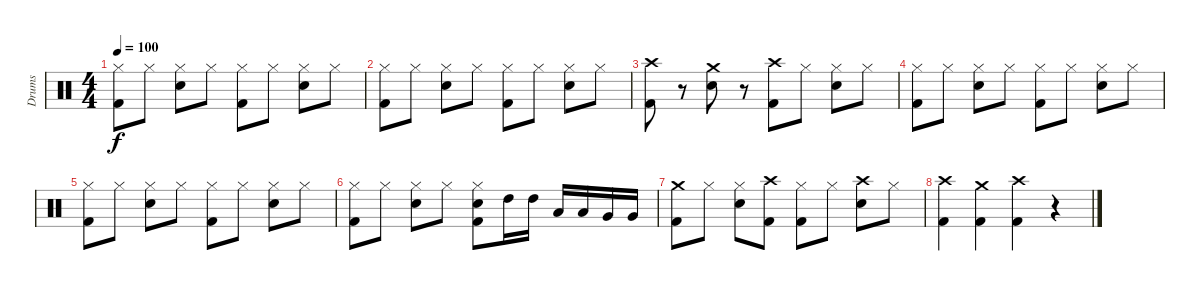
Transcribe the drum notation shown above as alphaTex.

\track ("Drums" "Drums") {instrument percussion}
\staff {score}
\articulation defaults
\ts (4 4)
\tempo 100
\clef neutral
\ks c
("Hi-Hat (closed)" "Kick (hit) 2").8{dy f} "Hi-Hat (closed)".8 ("Hi-Hat (closed)" "Snare (hit) 2").8 "Hi-Hat (closed)".8 ("Hi-Hat (closed)" "Kick (hit) 2").8 "Hi-Hat (closed)".8 ("Hi-Hat (closed)" "Snare (hit) 2").8 "Hi-Hat (closed)".8 |
("Hi-Hat (closed)" "Kick (hit) 2").8 "Hi-Hat (closed)".8 ("Hi-Hat (closed)" "Snare (hit) 2").8 "Hi-Hat (closed)".8 ("Hi-Hat (closed)" "Kick (hit) 2").8 "Hi-Hat (closed)".8 ("Hi-Hat (closed)" "Snare (hit) 2").8 "Hi-Hat (closed)".8 |
("Crash high (hit)" "Kick (hit) 2").8 r.8 ("Crash medium (hit)" "Snare (hit) 2").8 r.8 ("Crash high (hit)" "Kick (hit) 2").8 "Hi-Hat (closed)".8 ("Hi-Hat (closed)" "Snare (hit) 2").8 "Hi-Hat (closed)".8 |
("Hi-Hat (closed)" "Kick (hit) 2").8 "Hi-Hat (closed)".8 ("Hi-Hat (closed)" "Snare (hit) 2").8 "Hi-Hat (closed)".8 ("Hi-Hat (closed)" "Kick (hit) 2").8 "Hi-Hat (closed)".8 ("Hi-Hat (closed)" "Snare (hit) 2").8 "Hi-Hat (closed)".8 |
("Hi-Hat (closed)" "Kick (hit) 2").8 "Hi-Hat (closed)".8 ("Hi-Hat (closed)" "Snare (hit) 2").8 "Hi-Hat (closed)".8 ("Hi-Hat (closed)" "Kick (hit) 2").8 "Hi-Hat (closed)".8 ("Hi-Hat (closed)" "Snare (hit) 2").8 "Hi-Hat (closed)".8 |
("Hi-Hat (closed)" "Kick (hit) 2").8 "Hi-Hat (closed)".8 ("Hi-Hat (closed)" "Snare (hit) 2").8 "Hi-Hat (closed)".8 ("Hi-Hat (closed)" "Snare (hit) 2" "Kick (hit) 2").8 "High Tom (hit)".16 "High Tom (hit)".16 "Low Tom (hit)".16 "Low Tom (hit)".16 "Very Low Tom (hit)".16 "Very Low Tom (hit)".16 |
("Crash medium (hit)" "Kick (hit) 2").8 "Hi-Hat (closed)".8 ("Hi-Hat (closed)" "Snare (hit) 2").8 ("Crash high (hit)" "Kick (hit) 2").8 ("Hi-Hat (closed)" "Kick (hit) 2").8 "Hi-Hat (closed)".8 ("Crash high (hit)" "Snare (hit) 2").8 "Hi-Hat (closed)".8 |
("Crash high (hit)" "Kick (hit) 2").4 ("Crash medium (hit)" "Kick (hit) 2").4 ("Crash high (hit)" "Kick (hit) 2").4 r.4
